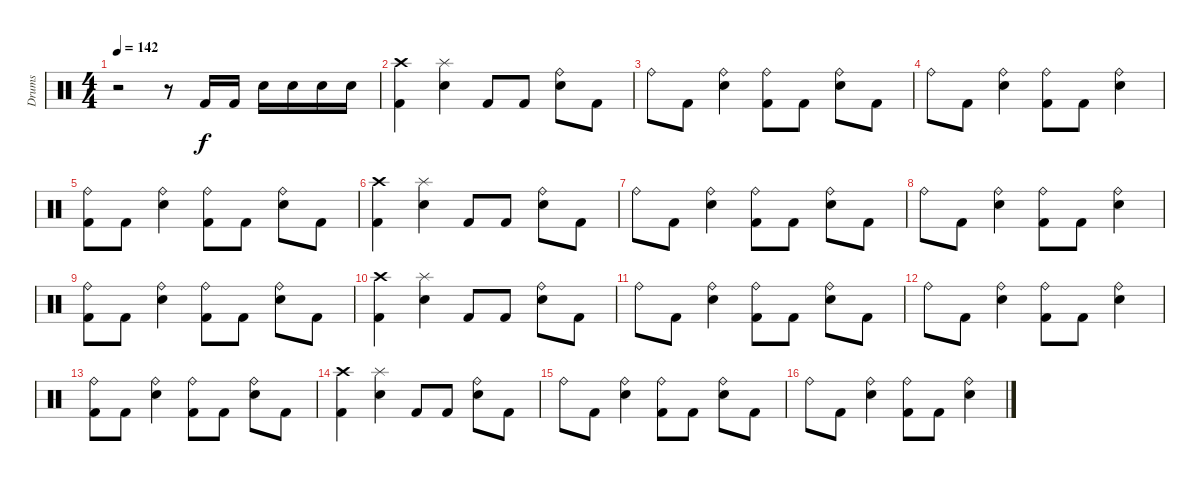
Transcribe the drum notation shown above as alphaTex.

\track ("Drums" "Drums") {instrument percussion}
\staff {score}
\articulation defaults
\ts (4 4)
\tempo 142
\clef neutral
\ks c
r.2{dy f} r.8 "Kick (hit) 2".16 "Kick (hit) 2".16 "Snare (hit) 2".16 "Snare (hit) 2".16 "Snare (hit) 2".16 "Snare (hit) 2".16 |
("Kick (hit) 2" "Crash high (hit)").4 ("Snare (hit) 2" "Splash (hit)").4 "Kick (hit) 2".8 "Kick (hit) 2".8 ("Snare (hit) 2" "Ride (bell)").8 "Kick (hit) 2".8 |
"Ride (bell)".8 "Kick (hit) 2".8 ("Snare (hit) 2" "Ride (bell)").4 ("Kick (hit) 2" "Ride (bell)").8 "Kick (hit) 2".8 ("Snare (hit) 2" "Ride (bell)").8 "Kick (hit) 2".8 |
"Ride (bell)".8 "Kick (hit) 2".8 ("Snare (hit) 2" "Ride (bell)").4 ("Kick (hit) 2" "Ride (bell)").8 "Kick (hit) 2".8 ("Snare (hit) 2" "Ride (bell)").4 |
("Kick (hit) 2" "Ride (bell)").8 "Kick (hit) 2".8 ("Snare (hit) 2" "Ride (bell)").4 ("Kick (hit) 2" "Ride (bell)").8 "Kick (hit) 2".8 ("Snare (hit) 2" "Ride (bell)").8 "Kick (hit) 2".8 |
("Kick (hit) 2" "Crash high (hit)").4 ("Snare (hit) 2" "Splash (hit)").4 "Kick (hit) 2".8 "Kick (hit) 2".8 ("Snare (hit) 2" "Ride (bell)").8 "Kick (hit) 2".8 |
"Ride (bell)".8 "Kick (hit) 2".8 ("Snare (hit) 2" "Ride (bell)").4 ("Kick (hit) 2" "Ride (bell)").8 "Kick (hit) 2".8 ("Snare (hit) 2" "Ride (bell)").8 "Kick (hit) 2".8 |
"Ride (bell)".8 "Kick (hit) 2".8 ("Snare (hit) 2" "Ride (bell)").4 ("Kick (hit) 2" "Ride (bell)").8 "Kick (hit) 2".8 ("Snare (hit) 2" "Ride (bell)").4 |
("Kick (hit) 2" "Ride (bell)").8 "Kick (hit) 2".8 ("Snare (hit) 2" "Ride (bell)").4 ("Kick (hit) 2" "Ride (bell)").8 "Kick (hit) 2".8 ("Snare (hit) 2" "Ride (bell)").8 "Kick (hit) 2".8 |
("Kick (hit) 2" "Crash high (hit)").4 ("Snare (hit) 2" "Splash (hit)").4 "Kick (hit) 2".8 "Kick (hit) 2".8 ("Snare (hit) 2" "Ride (bell)").8 "Kick (hit) 2".8 |
"Ride (bell)".8 "Kick (hit) 2".8 ("Snare (hit) 2" "Ride (bell)").4 ("Kick (hit) 2" "Ride (bell)").8 "Kick (hit) 2".8 ("Snare (hit) 2" "Ride (bell)").8 "Kick (hit) 2".8 |
"Ride (bell)".8 "Kick (hit) 2".8 ("Snare (hit) 2" "Ride (bell)").4 ("Kick (hit) 2" "Ride (bell)").8 "Kick (hit) 2".8 ("Snare (hit) 2" "Ride (bell)").4 |
("Kick (hit) 2" "Ride (bell)").8 "Kick (hit) 2".8 ("Snare (hit) 2" "Ride (bell)").4 ("Kick (hit) 2" "Ride (bell)").8 "Kick (hit) 2".8 ("Snare (hit) 2" "Ride (bell)").8 "Kick (hit) 2".8 |
("Kick (hit) 2" "Crash high (hit)").4 ("Snare (hit) 2" "Splash (hit)").4 "Kick (hit) 2".8 "Kick (hit) 2".8 ("Snare (hit) 2" "Ride (bell)").8 "Kick (hit) 2".8 |
"Ride (bell)".8 "Kick (hit) 2".8 ("Snare (hit) 2" "Ride (bell)").4 ("Kick (hit) 2" "Ride (bell)").8 "Kick (hit) 2".8 ("Snare (hit) 2" "Ride (bell)").8 "Kick (hit) 2".8 |
"Ride (bell)".8 "Kick (hit) 2".8 ("Snare (hit) 2" "Ride (bell)").4 ("Kick (hit) 2" "Ride (bell)").8 "Kick (hit) 2".8 ("Snare (hit) 2" "Ride (bell)").4
